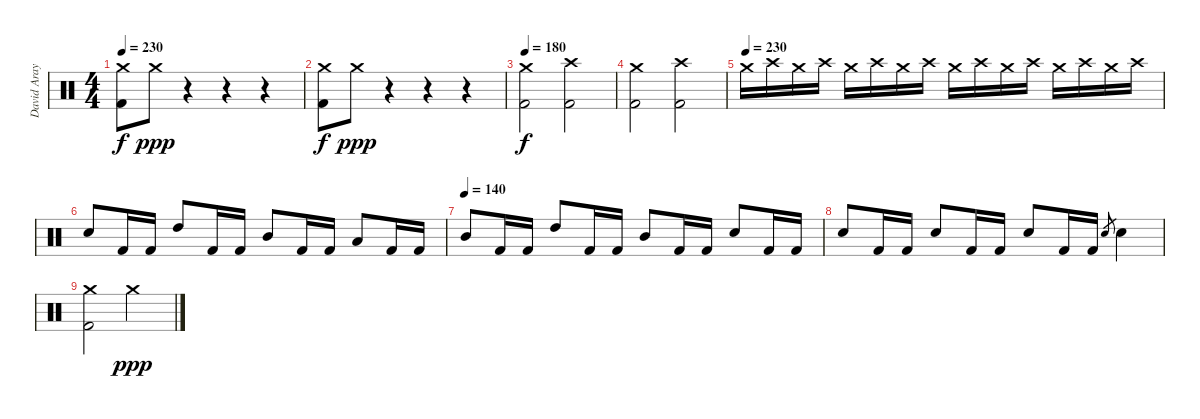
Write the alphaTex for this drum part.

\track ("David Araya" "David Aray") {instrument percussion}
\staff {score}
\articulation defaults
\ts (4 4)
\tempo 230
\clef neutral
\ks c
("Crash medium (hit)" "Kick (hit) 2").8{dy f} "Crash medium (hit)".8{dy ppp} r.4 r.4 r.4 |
("Crash medium (hit)" "Kick (hit) 2").8{dy f} "Crash medium (hit)".8{dy ppp} r.4 r.4 r.4 |
\tempo 180
("Crash medium (hit)" "Kick (hit) 2").2{dy f} ("Crash high (hit)" "Kick (hit) 2").2 |
("Crash medium (hit)" "Kick (hit) 2").2 ("Crash high (hit)" "Kick (hit) 2").2 |
\tempo (230)
"Crash medium (hit)".16 "Crash high (hit)".16 "Crash medium (hit)".16 "Crash high (hit)".16 "Crash medium (hit)".16 "Crash high (hit)".16 "Crash medium (hit)".16 "Crash high (hit)".16 "Crash medium (hit)".16 "Crash high (hit)".16 "Crash medium (hit)".16 "Crash high (hit)".16 "Crash medium (hit)".16 "Crash high (hit)".16 "Crash medium (hit)".16 "Crash high (hit)".16 |
"Electric Snare (hit)".8 "Kick (hit) 2".16 "Kick (hit) 2".16 "High Tom (hit)".8 "Kick (hit) 2".16 "Kick (hit) 2".16 "Mid Tom (hit)".8 "Kick (hit) 2".16 "Kick (hit) 2".16 "Low Tom (hit)".8 "Kick (hit) 2".16 "Kick (hit) 2".16 |
\tempo (140)
"Mid Tom (hit)".8 "Kick (hit) 2".16 "Kick (hit) 2".16 "High Tom (hit)".8 "Kick (hit) 2".16 "Kick (hit) 2".16 "Mid Tom (hit)".8 "Kick (hit) 2".16 "Kick (hit) 2".16 "Electric Snare (hit)".8 "Kick (hit) 2".16 "Kick (hit) 2".16 |
"Electric Snare (hit)".8 "Kick (hit) 2".16 "Kick (hit) 2".16 "Electric Snare (hit)".8 "Kick (hit) 2".16 "Kick (hit) 2".16 "Electric Snare (hit)".8 "Kick (hit) 2".16 "Kick (hit) 2".16 "Electric Snare (hit)".8{gr} "Electric Snare (hit)".4 |
("Crash medium (hit)" "Kick (hit) 2").2 "Crash medium (hit)".2{dy ppp}
